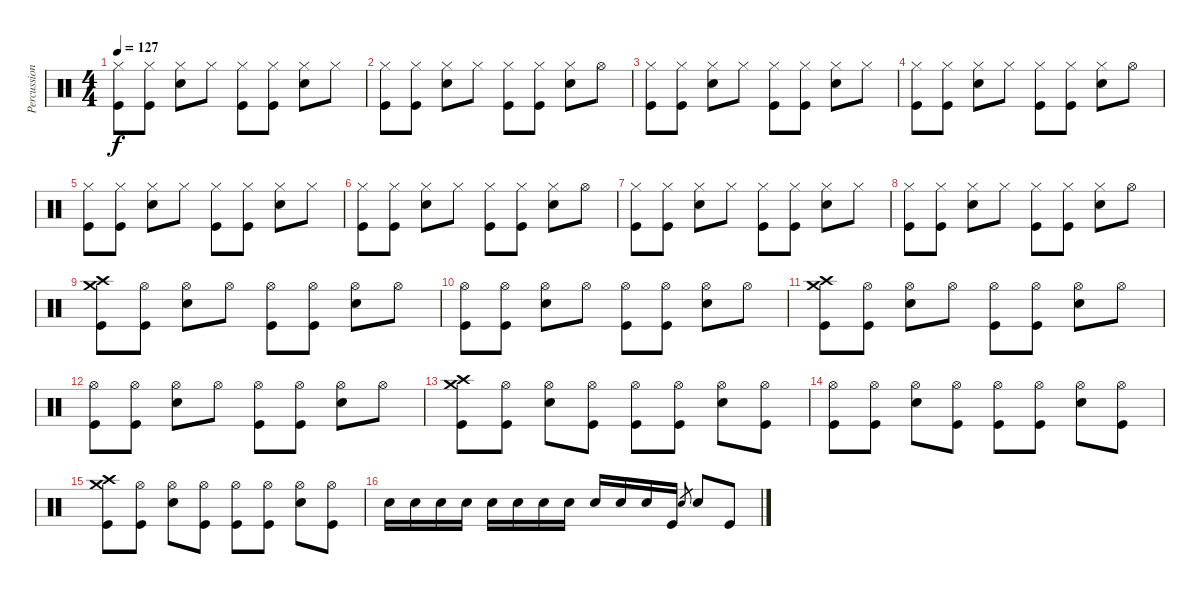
\track ("Percussions" "Percussion") {instrument percussion}
\staff {score}
\articulation defaults
\ts (4 4)
\tempo 127
\clef neutral
\ks c
("Hi-Hat (closed)" "Kick (hit)").8{dy f} ("Hi-Hat (closed)" "Kick (hit)").8 ("Hi-Hat (closed)" "Snare (hit) 2").8 "Hi-Hat (closed)".8 ("Hi-Hat (closed)" "Kick (hit)").8 ("Hi-Hat (closed)" "Kick (hit)").8 ("Hi-Hat (closed)" "Snare (hit) 2").8 "Hi-Hat (closed)".8 |
("Hi-Hat (closed)" "Kick (hit)").8 ("Hi-Hat (closed)" "Kick (hit)").8 ("Hi-Hat (closed)" "Snare (hit) 2").8 "Hi-Hat (closed)".8 ("Hi-Hat (closed)" "Kick (hit)").8 ("Hi-Hat (closed)" "Kick (hit)").8 ("Hi-Hat (closed)" "Snare (hit) 2").8 "Hi-Hat (open)".8 |
("Hi-Hat (closed)" "Kick (hit)").8 ("Hi-Hat (closed)" "Kick (hit)").8 ("Hi-Hat (closed)" "Snare (hit) 2").8 "Hi-Hat (closed)".8 ("Hi-Hat (closed)" "Kick (hit)").8 ("Hi-Hat (closed)" "Kick (hit)").8 ("Hi-Hat (closed)" "Snare (hit) 2").8 "Hi-Hat (closed)".8 |
("Hi-Hat (closed)" "Kick (hit)").8 ("Hi-Hat (closed)" "Kick (hit)").8 ("Hi-Hat (closed)" "Snare (hit) 2").8 "Hi-Hat (closed)".8 ("Hi-Hat (closed)" "Kick (hit)").8 ("Hi-Hat (closed)" "Kick (hit)").8 ("Hi-Hat (closed)" "Snare (hit) 2").8 "Hi-Hat (open)".8 |
("Hi-Hat (closed)" "Kick (hit)").8 ("Hi-Hat (closed)" "Kick (hit)").8 ("Hi-Hat (closed)" "Snare (hit) 2").8 "Hi-Hat (closed)".8 ("Hi-Hat (closed)" "Kick (hit)").8 ("Hi-Hat (closed)" "Kick (hit)").8 ("Hi-Hat (closed)" "Snare (hit) 2").8 "Hi-Hat (closed)".8 |
("Hi-Hat (closed)" "Kick (hit)").8 ("Hi-Hat (closed)" "Kick (hit)").8 ("Hi-Hat (closed)" "Snare (hit) 2").8 "Hi-Hat (closed)".8 ("Hi-Hat (closed)" "Kick (hit)").8 ("Hi-Hat (closed)" "Kick (hit)").8 ("Hi-Hat (closed)" "Snare (hit) 2").8 "Hi-Hat (open)".8 |
("Hi-Hat (closed)" "Kick (hit)").8 ("Hi-Hat (closed)" "Kick (hit)").8 ("Hi-Hat (closed)" "Snare (hit) 2").8 "Hi-Hat (closed)".8 ("Hi-Hat (closed)" "Kick (hit)").8 ("Hi-Hat (closed)" "Kick (hit)").8 ("Hi-Hat (closed)" "Snare (hit) 2").8 "Hi-Hat (closed)".8 |
("Hi-Hat (closed)" "Kick (hit)").8 ("Hi-Hat (closed)" "Kick (hit)").8 ("Hi-Hat (closed)" "Snare (hit) 2").8 "Hi-Hat (closed)".8 ("Hi-Hat (closed)" "Kick (hit)").8 ("Hi-Hat (closed)" "Kick (hit)").8 ("Hi-Hat (closed)" "Snare (hit) 2").8 "Hi-Hat (open)".8 |
("Crash high (hit)" "Crash medium (hit)" "Kick (hit)").8 ("Hi-Hat (open)" "Kick (hit)").8 ("Hi-Hat (open)" "Snare (hit) 2").8 "Hi-Hat (open)".8 ("Hi-Hat (open)" "Kick (hit)").8 ("Hi-Hat (open)" "Kick (hit)").8 ("Hi-Hat (open)" "Snare (hit) 2").8 "Hi-Hat (open)".8 |
("Hi-Hat (open)" "Kick (hit)").8 ("Hi-Hat (open)" "Kick (hit)").8 ("Hi-Hat (open)" "Snare (hit) 2").8 "Hi-Hat (open)".8 ("Hi-Hat (open)" "Kick (hit)").8 ("Hi-Hat (open)" "Kick (hit)").8 ("Hi-Hat (open)" "Snare (hit) 2").8 "Hi-Hat (open)".8 |
("Crash high (hit)" "Crash medium (hit)" "Kick (hit)").8 ("Hi-Hat (open)" "Kick (hit)").8 ("Hi-Hat (open)" "Snare (hit) 2").8 "Hi-Hat (open)".8 ("Hi-Hat (open)" "Kick (hit)").8 ("Hi-Hat (open)" "Kick (hit)").8 ("Hi-Hat (open)" "Snare (hit) 2").8 "Hi-Hat (open)".8 |
("Hi-Hat (open)" "Kick (hit)").8 ("Hi-Hat (open)" "Kick (hit)").8 ("Hi-Hat (open)" "Snare (hit) 2").8 "Hi-Hat (open)".8 ("Hi-Hat (open)" "Kick (hit)").8 ("Hi-Hat (open)" "Kick (hit)").8 ("Hi-Hat (open)" "Snare (hit) 2").8 "Hi-Hat (open)".8 |
("Crash high (hit)" "Crash medium (hit)" "Kick (hit)").8 ("Hi-Hat (open)" "Kick (hit)").8 ("Hi-Hat (open)" "Snare (hit) 2").8 ("Hi-Hat (open)" "Kick (hit)").8 ("Hi-Hat (open)" "Kick (hit)").8 ("Hi-Hat (open)" "Kick (hit)").8 ("Hi-Hat (open)" "Snare (hit) 2").8 ("Hi-Hat (open)" "Kick (hit)").8 |
("Hi-Hat (open)" "Kick (hit)").8 ("Hi-Hat (open)" "Kick (hit)").8 ("Hi-Hat (open)" "Snare (hit) 2").8 ("Hi-Hat (open)" "Kick (hit)").8 ("Hi-Hat (open)" "Kick (hit)").8 ("Hi-Hat (open)" "Kick (hit)").8 ("Hi-Hat (open)" "Snare (hit) 2").8 ("Hi-Hat (open)" "Kick (hit)").8 |
("Crash high (hit)" "Crash medium (hit)" "Kick (hit)").8 ("Hi-Hat (open)" "Kick (hit)").8 ("Hi-Hat (open)" "Snare (hit) 2").8 ("Hi-Hat (open)" "Kick (hit)").8 ("Hi-Hat (open)" "Kick (hit)").8 ("Hi-Hat (open)" "Kick (hit)").8 ("Hi-Hat (open)" "Snare (hit) 2").8 ("Hi-Hat (open)" "Kick (hit)").8 |
"Snare (hit) 2".16 "Snare (hit) 2".16 "Snare (hit) 2".16 "Snare (hit) 2".16 "Snare (hit) 2".16 "Snare (hit) 2".16 "Snare (hit) 2".16 "Snare (hit) 2".16 "Snare (hit) 2".16 "Snare (hit) 2".16 "Snare (hit) 2".16 "Kick (hit)".16 "Snare (hit) 2".8{gr} "Snare (hit) 2".8 "Kick (hit)".8
